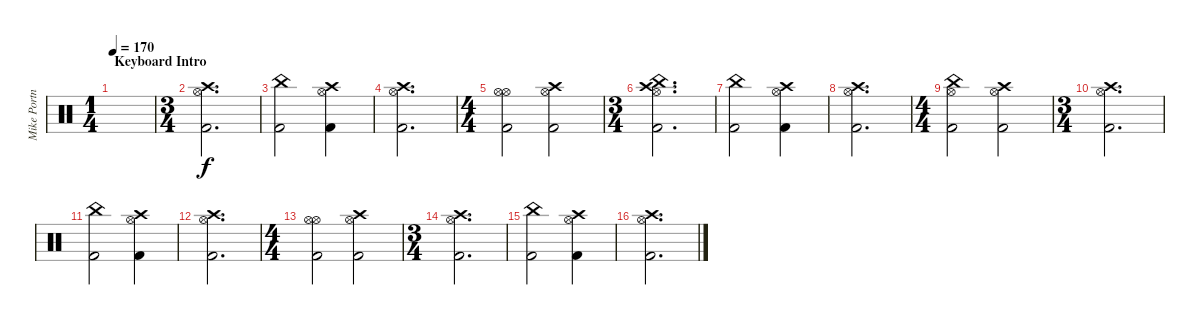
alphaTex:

\track ("Mike Portnoy Drums/Percussion" "Mike Portn") {instrument percussion}
\staff {score}
\articulation defaults
\ts (1 4)
\section ("" "Keyboard Intro")
\tempo 170
\clef neutral
\ks c
|
\ts (3 4)
("Crash high (hit)" "Hi-Hat (open)" "Kick (hit) 2").2{d} |
("China (hit)" "Kick (hit) 2").2 ("Crash high (hit)" "Hi-Hat (open)" "Kick (hit) 2").4 |
("Hi-Hat (open)" "Crash high (hit)" "Kick (hit) 2").2{d} |
\ts (4 4)
("Hi-Hat (open)" "Hi-Hat (open)" "Kick (hit) 2").2 ("Crash high (hit)" "Hi-Hat (open)" "Kick (hit) 2").2 |
\ts (3 4)
("China (hit)" "Crash high (hit)" "Hi-Hat (open)" "Kick (hit) 2").2{d} |
("China (hit)" "Kick (hit) 2").2 ("Crash high (hit)" "Hi-Hat (open)" "Kick (hit) 2").4 |
("Hi-Hat (open)" "Crash high (hit)" "Kick (hit) 2").2{d} |
\ts (4 4)
("China (hit)" "Hi-Hat (open)" "Kick (hit) 2").2 ("Crash high (hit)" "Hi-Hat (open)" "Kick (hit) 2").2 |
\ts (3 4)
("Crash high (hit)" "Hi-Hat (open)" "Kick (hit) 2").2{d} |
("China (hit)" "Kick (hit) 2").2 ("Crash high (hit)" "Hi-Hat (open)" "Kick (hit) 2").4 |
("Hi-Hat (open)" "Crash high (hit)" "Kick (hit) 2").2{d} |
\ts (4 4)
("Hi-Hat (open)" "Hi-Hat (open)" "Kick (hit) 2").2 ("Crash high (hit)" "Hi-Hat (open)" "Kick (hit) 2").2 |
\ts (3 4)
("Crash high (hit)" "Hi-Hat (open)" "Kick (hit) 2").2{d} |
("China (hit)" "Kick (hit) 2").2 ("Crash high (hit)" "Hi-Hat (open)" "Kick (hit) 2").4 |
("Hi-Hat (open)" "Crash high (hit)" "Kick (hit) 2").2{d}
